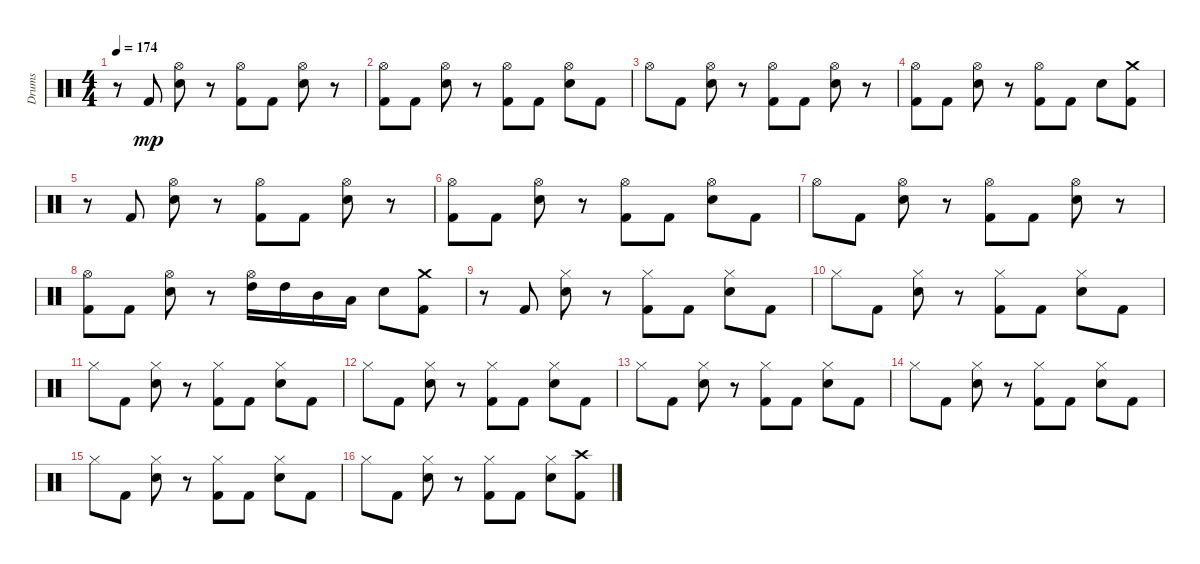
\track ("Drums" "Drums") {instrument percussion}
\staff {score}
\articulation defaults
\ts (4 4)
\tempo 174
\clef neutral
\ks c
r.8{dy mp} "Kick (hit) 2".8 ("Hi-Hat (open)" "Snare (hit) 2").8 r.8 ("Hi-Hat (open)" "Kick (hit) 2").8 "Kick (hit) 2".8 ("Hi-Hat (open)" "Snare (hit) 2").8 r.8 |
("Hi-Hat (open)" "Kick (hit) 2").8 "Kick (hit) 2".8 ("Snare (hit) 2" "Hi-Hat (open)").8 r.8 ("Hi-Hat (open)" "Kick (hit) 2").8 "Kick (hit) 2".8 ("Snare (hit) 2" "Hi-Hat (open)").8 "Kick (hit) 2".8 |
"Hi-Hat (open)".8 "Kick (hit) 2".8 ("Snare (hit) 2" "Hi-Hat (open)").8 r.8 ("Hi-Hat (open)" "Kick (hit) 2").8 "Kick (hit) 2".8 ("Hi-Hat (open)" "Snare (hit) 2").8 r.8 |
("Kick (hit) 2" "Hi-Hat (open)").8 "Kick (hit) 2".8 ("Snare (hit) 2" "Hi-Hat (open)").8 r.8 ("Kick (hit) 2" "Hi-Hat (open)").8 "Kick (hit) 2".8 "Snare (hit) 2".8 ("Crash medium (hit)" "Kick (hit) 2").8 |
r.8 "Kick (hit) 2".8 ("Hi-Hat (open)" "Snare (hit) 2").8 r.8 ("Hi-Hat (open)" "Kick (hit) 2").8 "Kick (hit) 2".8 ("Snare (hit) 2" "Hi-Hat (open)").8 r.8 |
("Hi-Hat (open)" "Kick (hit) 2").8 "Kick (hit) 2".8 ("Snare (hit) 2" "Hi-Hat (open)").8 r.8 ("Hi-Hat (open)" "Kick (hit) 2").8 "Kick (hit) 2".8 ("Snare (hit) 2" "Hi-Hat (open)").8 "Kick (hit) 2".8 |
"Hi-Hat (open)".8 "Kick (hit) 2".8 ("Hi-Hat (open)" "Snare (hit) 2").8 r.8 ("Kick (hit) 2" "Hi-Hat (open)").8 "Kick (hit) 2".8 ("Snare (hit) 2" "Hi-Hat (open)").8 r.8 |
("Kick (hit) 2" "Hi-Hat (open)").8 "Kick (hit) 2".8 ("Snare (hit) 2" "Hi-Hat (open)").8 r.8 ("High Tom (hit)" "Hi-Hat (open)").16 "High Tom (hit)".16 "Mid Tom (hit)".16 "Low Tom (hit)".16 "Snare (hit) 2".8 ("Kick (hit) 2" "Crash medium (hit)").8 |
r.8 "Kick (hit) 2".8 ("Hi-Hat (closed)" "Snare (hit) 2").8 r.8 ("Hi-Hat (closed)" "Kick (hit) 2").8 "Kick (hit) 2".8 ("Snare (hit) 2" "Hi-Hat (closed)").8 "Kick (hit) 2".8 |
"Hi-Hat (closed)".8 "Kick (hit) 2".8 ("Hi-Hat (closed)" "Snare (hit) 2").8 r.8 ("Kick (hit) 2" "Hi-Hat (closed)").8 "Kick (hit) 2".8 ("Hi-Hat (closed)" "Snare (hit) 2").8 "Kick (hit) 2".8 |
"Hi-Hat (closed)".8 "Kick (hit) 2".8 ("Snare (hit) 2" "Hi-Hat (closed)").8 r.8 ("Kick (hit) 2" "Hi-Hat (closed)").8 "Kick (hit) 2".8 ("Snare (hit) 2" "Hi-Hat (closed)").8 "Kick (hit) 2".8 |
"Hi-Hat (closed)".8 "Kick (hit) 2".8 ("Snare (hit) 2" "Hi-Hat (closed)").8 r.8 ("Kick (hit) 2" "Hi-Hat (closed)").8 "Kick (hit) 2".8 ("Snare (hit) 2" "Hi-Hat (closed)").8 "Kick (hit) 2".8 |
"Hi-Hat (closed)".8 "Kick (hit) 2".8 ("Snare (hit) 2" "Hi-Hat (closed)").8 r.8 ("Hi-Hat (closed)" "Kick (hit) 2").8 "Kick (hit) 2".8 ("Snare (hit) 2" "Hi-Hat (closed)").8 "Kick (hit) 2".8 |
"Hi-Hat (closed)".8 "Kick (hit) 2".8 ("Hi-Hat (closed)" "Snare (hit) 2").8 r.8 ("Hi-Hat (closed)" "Kick (hit) 2").8 "Kick (hit) 2".8 ("Hi-Hat (closed)" "Snare (hit) 2").8 "Kick (hit) 2".8 |
"Hi-Hat (closed)".8 "Kick (hit) 2".8 ("Snare (hit) 2" "Hi-Hat (closed)").8 r.8 ("Kick (hit) 2" "Hi-Hat (closed)").8 "Kick (hit) 2".8 ("Hi-Hat (closed)" "Snare (hit) 2").8 "Kick (hit) 2".8 |
"Hi-Hat (closed)".8 "Kick (hit) 2".8 ("Hi-Hat (closed)" "Snare (hit) 2").8 r.8 ("Hi-Hat (closed)" "Kick (hit) 2").8 "Kick (hit) 2".8 ("Hi-Hat (closed)" "Snare (hit) 2").8 ("Crash high (hit)" "Kick (hit) 2").8
